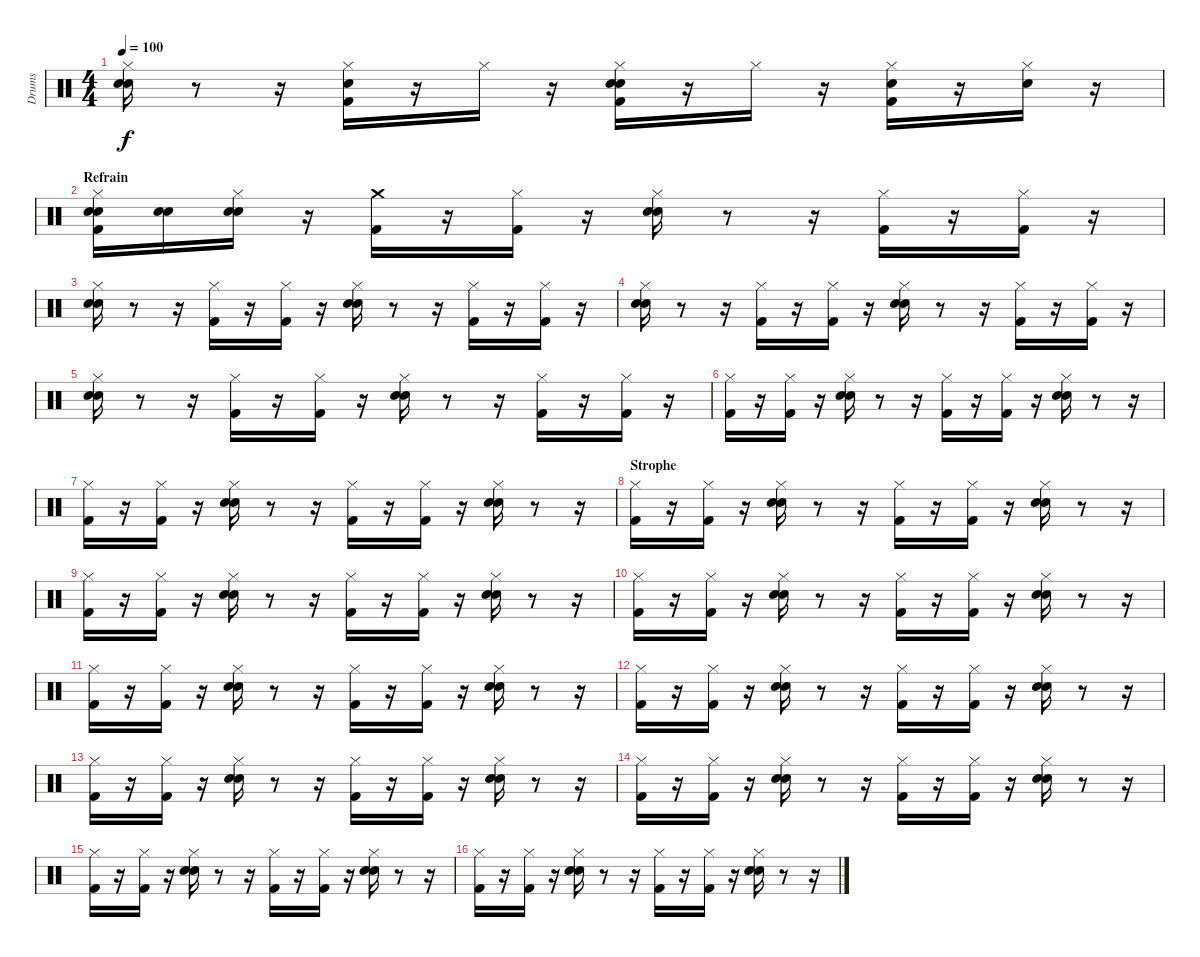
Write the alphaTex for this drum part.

\track ("Drums" "Drums") {instrument percussion}
\staff {score}
\articulation defaults
\ts (4 4)
\tempo 100
\clef neutral
\ks c
("Snare (hit) 2" "Hi-Hat (closed)" "Hand Clap (hit)").16{dy f} r.8 r.16 ("Hi-Hat (closed)" "Snare (hit) 2" "Kick (hit) 2").16 r.16 "Hi-Hat (closed)".16 r.16 ("Hi-Hat (closed)" "Hand Clap (hit)" "Kick (hit) 2" "Snare (hit) 2").16 r.16 "Hi-Hat (closed)".16 r.16 ("Hi-Hat (closed)" "Snare (hit) 2" "Kick (hit) 2").16 r.16 ("Snare (hit) 2" "Hi-Hat (closed)").16 r.16 |
\section ("" "Refrain")
("Hand Clap (hit)" "Kick (hit) 2" "Hi-Hat (closed)" "Snare (hit) 2").16 ("Snare (hit)" "Snare (hit) 2").16 ("Snare (hit)" "Snare (hit) 2" "Hi-Hat (closed)").16 r.16 ("Crash medium (hit)" "Kick (hit) 2").16 r.16 ("Hi-Hat (closed)" "Kick (hit) 2").16 r.16 ("Hand Clap (hit)" "Hi-Hat (closed)" "Snare (hit) 2").16 r.8 r.16 ("Kick (hit) 2" "Hi-Hat (closed)").16 r.16 ("Kick (hit) 2" "Hi-Hat (closed)").16 r.16 |
("Hi-Hat (closed)" "Hand Clap (hit)" "Snare (hit) 2").16 r.8 r.16 ("Hi-Hat (closed)" "Kick (hit) 2").16 r.16 ("Kick (hit) 2" "Hi-Hat (closed)").16 r.16 ("Snare (hit) 2" "Hi-Hat (closed)" "Hand Clap (hit)").16 r.8 r.16 ("Hi-Hat (closed)" "Kick (hit) 2").16 r.16 ("Hi-Hat (closed)" "Kick (hit) 2").16 r.16 |
("Snare (hit) 2" "Hand Clap (hit)" "Hi-Hat (closed)").16 r.8 r.16 ("Hi-Hat (closed)" "Kick (hit) 2").16 r.16 ("Kick (hit) 2" "Hi-Hat (closed)").16 r.16 ("Snare (hit) 2" "Hi-Hat (closed)" "Hand Clap (hit)").16 r.8 r.16 ("Kick (hit) 2" "Hi-Hat (closed)").16 r.16 ("Hi-Hat (closed)" "Kick (hit) 2").16 r.16 |
("Hi-Hat (closed)" "Snare (hit) 2" "Hand Clap (hit)").16 r.8 r.16 ("Hi-Hat (closed)" "Kick (hit) 2").16 r.16 ("Kick (hit) 2" "Hi-Hat (closed)").16 r.16 ("Hi-Hat (closed)" "Hand Clap (hit)" "Snare (hit) 2").16 r.8 r.16 ("Hi-Hat (closed)" "Kick (hit) 2").16 r.16 ("Kick (hit) 2" "Hi-Hat (closed)").16 r.16 |
("Hi-Hat (closed)" "Kick (hit) 2").16 r.16 ("Hi-Hat (closed)" "Kick (hit) 2").16 r.16 ("Snare (hit) 2" "Hand Clap (hit)" "Hi-Hat (closed)").16 r.8 r.16 ("Kick (hit) 2" "Hi-Hat (closed)").16 r.16 ("Hi-Hat (closed)" "Kick (hit) 2").16 r.16 ("Hi-Hat (closed)" "Snare (hit) 2" "Hand Clap (hit)").16 r.8 r.16 |
("Kick (hit) 2" "Hi-Hat (closed)").16 r.16 ("Kick (hit) 2" "Hi-Hat (closed)").16 r.16 ("Hi-Hat (closed)" "Snare (hit) 2" "Hand Clap (hit)").16 r.8 r.16 ("Kick (hit) 2" "Hi-Hat (closed)").16 r.16 ("Kick (hit) 2" "Hi-Hat (closed)").16 r.16 ("Hand Clap (hit)" "Snare (hit) 2" "Hi-Hat (closed)").16 r.8 r.16 |
\section ("" "Strophe")
("Kick (hit) 2" "Hi-Hat (closed)").16 r.16 ("Hi-Hat (closed)" "Kick (hit) 2").16 r.16 ("Hi-Hat (closed)" "Hand Clap (hit)" "Snare (hit) 2").16 r.8 r.16 ("Hi-Hat (closed)" "Kick (hit) 2").16 r.16 ("Hi-Hat (closed)" "Kick (hit) 2").16 r.16 ("Snare (hit) 2" "Hand Clap (hit)" "Hi-Hat (closed)").16 r.8 r.16 |
("Kick (hit) 2" "Hi-Hat (closed)").16 r.16 ("Kick (hit) 2" "Hi-Hat (closed)").16 r.16 ("Snare (hit) 2" "Hand Clap (hit)" "Hi-Hat (closed)").16 r.8 r.16 ("Hi-Hat (closed)" "Kick (hit) 2").16 r.16 ("Kick (hit) 2" "Hi-Hat (closed)").16 r.16 ("Hi-Hat (closed)" "Snare (hit) 2" "Hand Clap (hit)").16 r.8 r.16 |
("Hi-Hat (closed)" "Kick (hit) 2").16 r.16 ("Hi-Hat (closed)" "Kick (hit) 2").16 r.16 ("Hand Clap (hit)" "Hi-Hat (closed)" "Snare (hit) 2").16 r.8 r.16 ("Hi-Hat (closed)" "Kick (hit) 2").16 r.16 ("Hi-Hat (closed)" "Kick (hit) 2").16 r.16 ("Hand Clap (hit)" "Snare (hit) 2" "Hi-Hat (closed)").16 r.8 r.16 |
("Hi-Hat (closed)" "Kick (hit) 2").16 r.16 ("Hi-Hat (closed)" "Kick (hit) 2").16 r.16 ("Hand Clap (hit)" "Snare (hit) 2" "Hi-Hat (closed)").16 r.8 r.16 ("Hi-Hat (closed)" "Kick (hit) 2").16 r.16 ("Hi-Hat (closed)" "Kick (hit) 2").16 r.16 ("Hand Clap (hit)" "Snare (hit) 2" "Hi-Hat (closed)").16 r.8 r.16 |
("Kick (hit) 2" "Hi-Hat (closed)").16 r.16 ("Hi-Hat (closed)" "Kick (hit) 2").16 r.16 ("Hand Clap (hit)" "Hi-Hat (closed)" "Snare (hit) 2").16 r.8 r.16 ("Hi-Hat (closed)" "Kick (hit) 2").16 r.16 ("Hi-Hat (closed)" "Kick (hit) 2").16 r.16 ("Hand Clap (hit)" "Hi-Hat (closed)" "Snare (hit) 2").16 r.8 r.16 |
("Hi-Hat (closed)" "Kick (hit) 2").16 r.16 ("Kick (hit) 2" "Hi-Hat (closed)").16 r.16 ("Hand Clap (hit)" "Snare (hit) 2" "Hi-Hat (closed)").16 r.8 r.16 ("Kick (hit) 2" "Hi-Hat (closed)").16 r.16 ("Kick (hit) 2" "Hi-Hat (closed)").16 r.16 ("Hi-Hat (closed)" "Hand Clap (hit)" "Snare (hit) 2").16 r.8 r.16 |
("Kick (hit) 2" "Hi-Hat (closed)").16 r.16 ("Kick (hit) 2" "Hi-Hat (closed)").16 r.16 ("Snare (hit) 2" "Hand Clap (hit)" "Hi-Hat (closed)").16 r.8 r.16 ("Kick (hit) 2" "Hi-Hat (closed)").16 r.16 ("Hi-Hat (closed)" "Kick (hit) 2").16 r.16 ("Hand Clap (hit)" "Snare (hit) 2" "Hi-Hat (closed)").16 r.8 r.16 |
("Hi-Hat (closed)" "Kick (hit) 2").16 r.16 ("Hi-Hat (closed)" "Kick (hit) 2").16 r.16 ("Snare (hit) 2" "Hand Clap (hit)" "Hi-Hat (closed)").16 r.8 r.16 ("Hi-Hat (closed)" "Kick (hit) 2").16 r.16 ("Hi-Hat (closed)" "Kick (hit) 2").16 r.16 ("Hand Clap (hit)" "Snare (hit) 2" "Hi-Hat (closed)").16 r.8 r.16 |
("Hi-Hat (closed)" "Kick (hit) 2").16 r.16 ("Kick (hit) 2" "Hi-Hat (closed)").16 r.16 ("Hand Clap (hit)" "Hi-Hat (closed)" "Snare (hit) 2").16 r.8 r.16 ("Hi-Hat (closed)" "Kick (hit) 2").16 r.16 ("Hi-Hat (closed)" "Kick (hit) 2").16 r.16 ("Snare (hit) 2" "Hand Clap (hit)" "Hi-Hat (closed)").16 r.8 r.16
